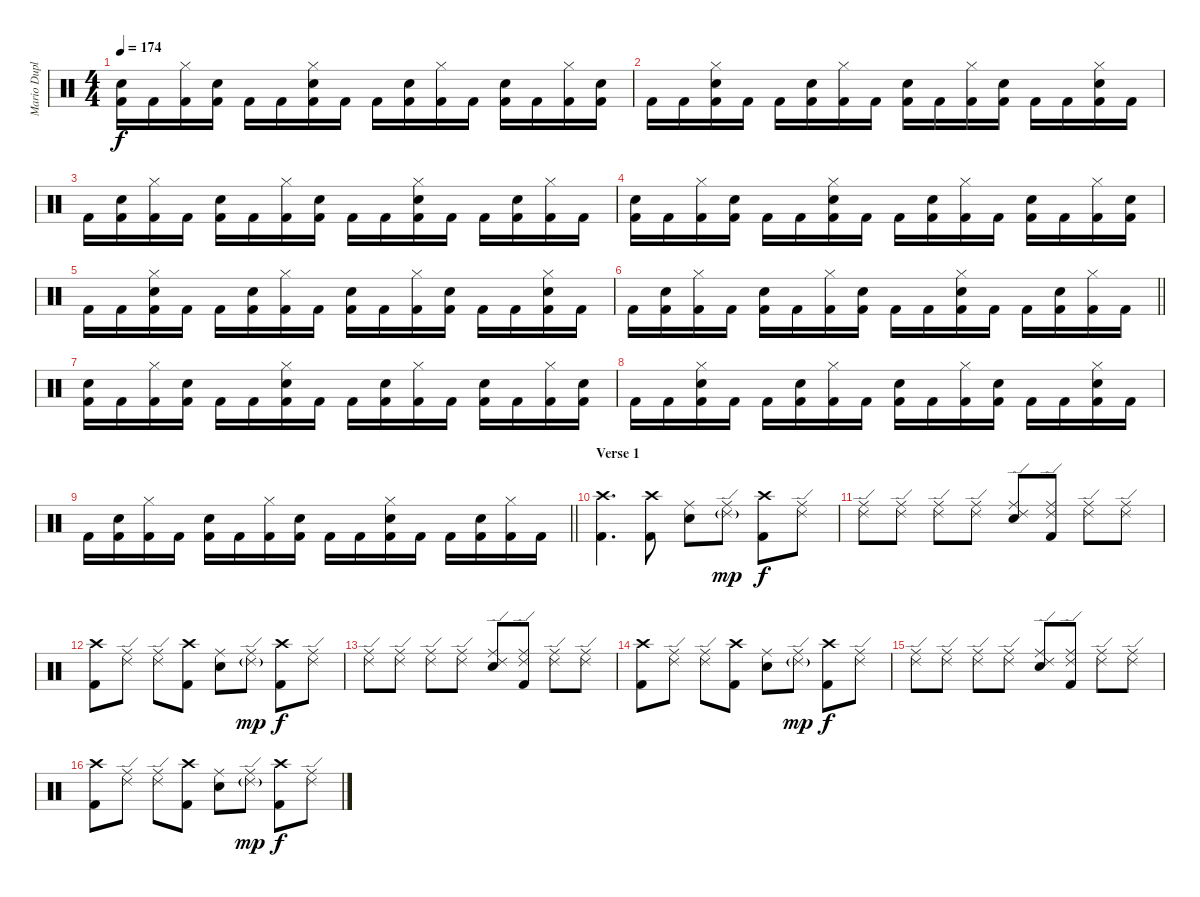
\track ("Mario Duplantier - DRUMS" "Mario Dupl") {instrument percussion}
\staff {score}
\articulation defaults
\ts (4 4)
\tempo 174
\clef neutral
\ks c
("Electric Snare (hit)" "Kick (hit) 2").16{dy f} "Kick (hit) 2".16 ("Hi-Hat (closed)" "Kick (hit) 2").16 ("Electric Snare (hit)" "Kick (hit) 2").16 "Kick (hit) 2".16 "Kick (hit) 2".16 ("Hi-Hat (closed)" "Electric Snare (hit)" "Kick (hit) 2").16 "Kick (hit) 2".16 "Kick (hit) 2".16 ("Electric Snare (hit)" "Kick (hit) 2").16 ("Hi-Hat (closed)" "Kick (hit) 2").16 "Kick (hit) 2".16 ("Electric Snare (hit)" "Kick (hit) 2").16 "Kick (hit) 2".16 ("Hi-Hat (closed)" "Kick (hit) 2").16 ("Electric Snare (hit)" "Kick (hit) 2").16 |
"Kick (hit) 2".16 "Kick (hit) 2".16 ("Hi-Hat (closed)" "Electric Snare (hit)" "Kick (hit) 2").16 "Kick (hit) 2".16 "Kick (hit) 2".16 ("Electric Snare (hit)" "Kick (hit) 2").16 ("Hi-Hat (closed)" "Kick (hit) 2").16 "Kick (hit) 2".16 ("Electric Snare (hit)" "Kick (hit) 2").16 "Kick (hit) 2".16 ("Hi-Hat (closed)" "Kick (hit) 2").16 ("Electric Snare (hit)" "Kick (hit) 2").16 "Kick (hit) 2".16 "Kick (hit) 2".16 ("Hi-Hat (closed)" "Electric Snare (hit)" "Kick (hit) 2").16 "Kick (hit) 2".16 |
"Kick (hit) 2".16 ("Electric Snare (hit)" "Kick (hit) 2").16 ("Hi-Hat (closed)" "Kick (hit) 2").16 "Kick (hit) 2".16 ("Electric Snare (hit)" "Kick (hit) 2").16 "Kick (hit) 2".16 ("Hi-Hat (closed)" "Kick (hit) 2").16 ("Electric Snare (hit)" "Kick (hit) 2").16 "Kick (hit) 2".16 "Kick (hit) 2".16 ("Hi-Hat (closed)" "Electric Snare (hit)" "Kick (hit) 2").16 "Kick (hit) 2".16 "Kick (hit) 2".16 ("Electric Snare (hit)" "Kick (hit) 2").16 ("Hi-Hat (closed)" "Kick (hit) 2").16 "Kick (hit) 2".16 |
("Electric Snare (hit)" "Kick (hit) 2").16 "Kick (hit) 2".16 ("Hi-Hat (closed)" "Kick (hit) 2").16 ("Electric Snare (hit)" "Kick (hit) 2").16 "Kick (hit) 2".16 "Kick (hit) 2".16 ("Hi-Hat (closed)" "Electric Snare (hit)" "Kick (hit) 2").16 "Kick (hit) 2".16 "Kick (hit) 2".16 ("Electric Snare (hit)" "Kick (hit) 2").16 ("Hi-Hat (closed)" "Kick (hit) 2").16 "Kick (hit) 2".16 ("Electric Snare (hit)" "Kick (hit) 2").16 "Kick (hit) 2".16 ("Hi-Hat (closed)" "Kick (hit) 2").16 ("Electric Snare (hit)" "Kick (hit) 2").16 |
"Kick (hit) 2".16 "Kick (hit) 2".16 ("Hi-Hat (closed)" "Electric Snare (hit)" "Kick (hit) 2").16 "Kick (hit) 2".16 "Kick (hit) 2".16 ("Electric Snare (hit)" "Kick (hit) 2").16 ("Hi-Hat (closed)" "Kick (hit) 2").16 "Kick (hit) 2".16 ("Electric Snare (hit)" "Kick (hit) 2").16 "Kick (hit) 2".16 ("Hi-Hat (closed)" "Kick (hit) 2").16 ("Electric Snare (hit)" "Kick (hit) 2").16 "Kick (hit) 2".16 "Kick (hit) 2".16 ("Hi-Hat (closed)" "Electric Snare (hit)" "Kick (hit) 2").16 "Kick (hit) 2".16 |
\barLineRight lightlight "Kick (hit) 2".16
("Electric Snare (hit)" "Kick (hit) 2").16 ("Hi-Hat (closed)" "Kick (hit) 2").16 "Kick (hit) 2".16 ("Electric Snare (hit)" "Kick (hit) 2").16 "Kick (hit) 2".16 ("Hi-Hat (closed)" "Kick (hit) 2").16 ("Electric Snare (hit)" "Kick (hit) 2").16 "Kick (hit) 2".16 "Kick (hit) 2".16 ("Hi-Hat (closed)" "Electric Snare (hit)" "Kick (hit) 2").16 "Kick (hit) 2".16 "Kick (hit) 2".16 ("Electric Snare (hit)" "Kick (hit) 2").16 ("Hi-Hat (closed)" "Kick (hit) 2").16 "Kick (hit) 2".16 |
("Electric Snare (hit)" "Kick (hit) 2").16 "Kick (hit) 2".16 ("Hi-Hat (closed)" "Kick (hit) 2").16 ("Electric Snare (hit)" "Kick (hit) 2").16 "Kick (hit) 2".16 "Kick (hit) 2".16 ("Hi-Hat (closed)" "Electric Snare (hit)" "Kick (hit) 2").16 "Kick (hit) 2".16 "Kick (hit) 2".16 ("Electric Snare (hit)" "Kick (hit) 2").16 ("Hi-Hat (closed)" "Kick (hit) 2").16 "Kick (hit) 2".16 ("Electric Snare (hit)" "Kick (hit) 2").16 "Kick (hit) 2".16 ("Hi-Hat (closed)" "Kick (hit) 2").16 ("Electric Snare (hit)" "Kick (hit) 2").16 |
"Kick (hit) 2".16 "Kick (hit) 2".16 ("Hi-Hat (closed)" "Electric Snare (hit)" "Kick (hit) 2").16 "Kick (hit) 2".16 "Kick (hit) 2".16 ("Electric Snare (hit)" "Kick (hit) 2").16 ("Hi-Hat (closed)" "Kick (hit) 2").16 "Kick (hit) 2".16 ("Electric Snare (hit)" "Kick (hit) 2").16 "Kick (hit) 2".16 ("Hi-Hat (closed)" "Kick (hit) 2").16 ("Electric Snare (hit)" "Kick (hit) 2").16 "Kick (hit) 2".16 "Kick (hit) 2".16 ("Hi-Hat (closed)" "Electric Snare (hit)" "Kick (hit) 2").16 "Kick (hit) 2".16 |
\barLineRight lightlight "Kick (hit) 2".16
("Electric Snare (hit)" "Kick (hit) 2").16 ("Hi-Hat (closed)" "Kick (hit) 2").16 "Kick (hit) 2".16 ("Electric Snare (hit)" "Kick (hit) 2").16 "Kick (hit) 2".16 ("Hi-Hat (closed)" "Kick (hit) 2").16 ("Electric Snare (hit)" "Kick (hit) 2").16 "Kick (hit) 2".16 "Kick (hit) 2".16 ("Hi-Hat (closed)" "Electric Snare (hit)" "Kick (hit) 2").16 "Kick (hit) 2".16 "Kick (hit) 2".16 ("Electric Snare (hit)" "Kick (hit) 2").16 ("Hi-Hat (closed)" "Kick (hit) 2").16 "Kick (hit) 2".16 |
\section ("" "Verse 1")
("Crash high (hit)" "Kick (hit) 2").4{d} ("Crash high (hit)" "Kick (hit) 2").8 ("Ride (middle)" "Electric Snare (hit)").8 ("Ride (middle)" "Ride (edge) 2"{g}).8{dy mp} ("Crash high (hit)" "Kick (hit) 2").8{dy f} ("Ride (middle)" "Ride (edge) 2").8 |
("Ride (middle)" "Ride (edge) 2").8 ("Ride (middle)" "Ride (edge) 2").8 ("Ride (middle)" "Ride (edge) 2").8 ("Ride (middle)" "Ride (edge) 2").8 ("Ride (middle)" "Ride (edge) 2" "Electric Snare (hit)").8 ("Ride (middle)" "Ride (edge) 2" "Kick (hit) 2").8 ("Ride (middle)" "Ride (edge) 2").8 ("Ride (middle)" "Ride (edge) 2").8 |
("Crash high (hit)" "Kick (hit) 2").8 ("Ride (middle)" "Ride (edge) 2").8 ("Ride (middle)" "Ride (edge) 2").8 ("Crash high (hit)" "Kick (hit) 2").8 ("Ride (middle)" "Electric Snare (hit)").8 ("Ride (middle)" "Ride (edge) 2"{g}).8{dy mp} ("Crash high (hit)" "Kick (hit) 2").8{dy f} ("Ride (middle)" "Ride (edge) 2").8 |
("Ride (middle)" "Ride (edge) 2").8 ("Ride (middle)" "Ride (edge) 2").8 ("Ride (middle)" "Ride (edge) 2").8 ("Ride (middle)" "Ride (edge) 2").8 ("Ride (middle)" "Ride (edge) 2" "Electric Snare (hit)").8 ("Ride (middle)" "Ride (edge) 2" "Kick (hit) 2").8 ("Ride (middle)" "Ride (edge) 2").8 ("Ride (middle)" "Ride (edge) 2").8 |
("Crash high (hit)" "Kick (hit) 2").8 ("Ride (middle)" "Ride (edge) 2").8 ("Ride (middle)" "Ride (edge) 2").8 ("Crash high (hit)" "Kick (hit) 2").8 ("Ride (middle)" "Electric Snare (hit)").8 ("Ride (middle)" "Ride (edge) 2"{g}).8{dy mp} ("Crash high (hit)" "Kick (hit) 2").8{dy f} ("Ride (middle)" "Ride (edge) 2").8 |
("Ride (middle)" "Ride (edge) 2").8 ("Ride (middle)" "Ride (edge) 2").8 ("Ride (middle)" "Ride (edge) 2").8 ("Ride (middle)" "Ride (edge) 2").8 ("Ride (middle)" "Ride (edge) 2" "Electric Snare (hit)").8 ("Ride (middle)" "Ride (edge) 2" "Kick (hit) 2").8 ("Ride (middle)" "Ride (edge) 2").8 ("Ride (middle)" "Ride (edge) 2").8 |
("Crash high (hit)" "Kick (hit) 2").8 ("Ride (middle)" "Ride (edge) 2").8 ("Ride (middle)" "Ride (edge) 2").8 ("Crash high (hit)" "Kick (hit) 2").8 ("Ride (middle)" "Electric Snare (hit)").8 ("Ride (middle)" "Ride (edge) 2"{g}).8{dy mp} ("Crash high (hit)" "Kick (hit) 2").8{dy f} ("Ride (middle)" "Ride (edge) 2").8
